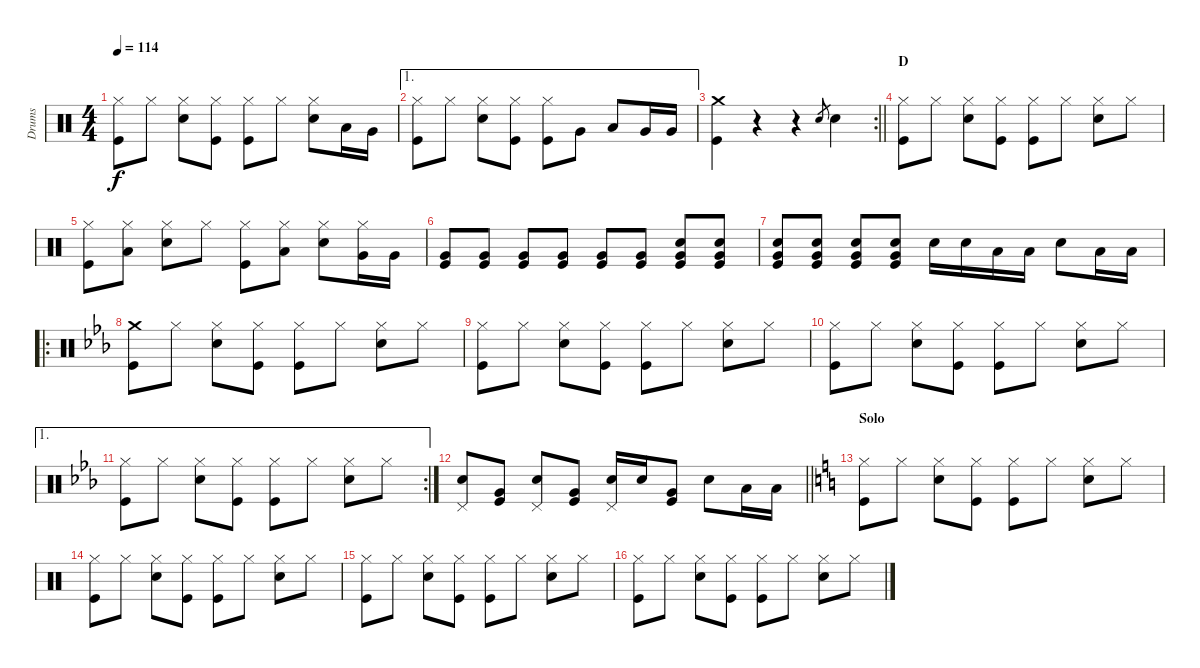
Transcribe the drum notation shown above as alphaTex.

\track ("Drums" "Drums") {instrument percussion}
\staff {score}
\articulation defaults
\ts (4 4)
\tempo 114
\clef neutral
\ks c
("Hi-Hat (closed)" "Kick (hit)").8{dy f} "Hi-Hat (closed)".8 ("Hi-Hat (closed)" "Electric Snare (hit)").8 ("Hi-Hat (closed)" "Kick (hit)").8 ("Hi-Hat (closed)" "Kick (hit)").8 "Hi-Hat (closed)".8 ("Hi-Hat (closed)" "Electric Snare (hit)").8 "Low Tom (hit)".16 "Very Low Tom (hit)".16 |
\ae 1
("Hi-Hat (closed)" "Kick (hit)").8 "Hi-Hat (closed)".8 ("Hi-Hat (closed)" "Electric Snare (hit)").8 ("Hi-Hat (closed)" "Kick (hit)").8 ("Hi-Hat (closed)" "Kick (hit)").8 "Very Low Tom (hit)".8 "Low Tom (hit)".8 "Very Low Tom (hit)".16 "Very Low Tom (hit)".16 |
\rc 2
\barLineRight lightlight
("Crash medium (hit)" "Kick (hit)").4 r.4 r.4 "Electric Snare (hit)".8{gr} "Electric Snare (hit)".4 |
\section ("" "D")
("Hi-Hat (closed)" "Kick (hit)").8 "Hi-Hat (closed)".8 ("Hi-Hat (closed)" "Electric Snare (hit)").8 ("Hi-Hat (closed)" "Kick (hit)").8 ("Hi-Hat (closed)" "Kick (hit)").8 "Hi-Hat (closed)".8 ("Hi-Hat (closed)" "Electric Snare (hit)").8 "Hi-Hat (closed)".8 |
("Hi-Hat (closed)" "Kick (hit)").8 ("Hi-Hat (closed)" "Low Tom (hit)").8 ("Hi-Hat (closed)" "Electric Snare (hit)").8 "Hi-Hat (closed)".8 ("Hi-Hat (closed)" "Kick (hit)").8 ("Hi-Hat (closed)" "Low Tom (hit)").8 ("Hi-Hat (closed)" "Electric Snare (hit)").8 ("Hi-Hat (closed)" "Very Low Tom (hit)").16 "Very Low Tom (hit)".16 |
("Very Low Tom (hit)" "Kick (hit)").8 ("Very Low Tom (hit)" "Kick (hit)").8 ("Very Low Tom (hit)" "Kick (hit)").8 ("Very Low Tom (hit)" "Kick (hit)").8 ("Very Low Tom (hit)" "Kick (hit)").8 ("Very Low Tom (hit)" "Kick (hit)").8 ("Electric Snare (hit)" "Very Low Tom (hit)" "Kick (hit)").8 ("Electric Snare (hit)" "Very Low Tom (hit)" "Kick (hit)").8 |
("Electric Snare (hit)" "Very Low Tom (hit)" "Kick (hit)").8 ("Electric Snare (hit)" "Very Low Tom (hit)" "Kick (hit)").8 ("Electric Snare (hit)" "Very Low Tom (hit)" "Kick (hit)").8 ("Electric Snare (hit)" "Very Low Tom (hit)" "Kick (hit)").8 "Electric Snare (hit)".16 "Electric Snare (hit)".16 "Low Tom (hit)".16 "Low Tom (hit)".16 "Electric Snare (hit)".8 "Low Tom (hit)".16 "Low Tom (hit)".16 |
\ro
\ks cminor
("Crash medium (hit)" "Kick (hit)").8 "Hi-Hat (closed)".8 ("Hi-Hat (closed)" "Electric Snare (hit)").8 ("Hi-Hat (closed)" "Kick (hit)").8 ("Hi-Hat (closed)" "Kick (hit)").8 "Hi-Hat (closed)".8 ("Hi-Hat (closed)" "Electric Snare (hit)").8 "Hi-Hat (closed)".8 |
("Hi-Hat (closed)" "Kick (hit)").8 "Hi-Hat (closed)".8 ("Hi-Hat (closed)" "Electric Snare (hit)").8 ("Hi-Hat (closed)" "Kick (hit)").8 ("Hi-Hat (closed)" "Kick (hit)").8 "Hi-Hat (closed)".8 ("Hi-Hat (closed)" "Electric Snare (hit)").8 "Hi-Hat (closed)".8 |
("Hi-Hat (closed)" "Kick (hit)").8 "Hi-Hat (closed)".8 ("Hi-Hat (closed)" "Electric Snare (hit)").8 ("Hi-Hat (closed)" "Kick (hit)").8 ("Hi-Hat (closed)" "Kick (hit)").8 "Hi-Hat (closed)".8 ("Hi-Hat (closed)" "Electric Snare (hit)").8 "Hi-Hat (closed)".8 |
\ae 1
\rc 2
("Hi-Hat (closed)" "Kick (hit)").8 "Hi-Hat (closed)".8 ("Hi-Hat (closed)" "Electric Snare (hit)").8 ("Hi-Hat (closed)" "Kick (hit)").8 ("Hi-Hat (closed)" "Kick (hit)").8 "Hi-Hat (closed)".8 ("Hi-Hat (closed)" "Electric Snare (hit)").8 "Hi-Hat (closed)".8 |
\barLineRight lightlight
("Pedal Hi-Hat (hit)" "Electric Snare (hit)").8 ("Very Low Tom (hit)" "Kick (hit)").8 ("Pedal Hi-Hat (hit)" "Electric Snare (hit)").8 ("Very Low Tom (hit)" "Kick (hit)").8 ("Pedal Hi-Hat (hit)" "Electric Snare (hit)").16 "Electric Snare (hit)".16 ("Very Low Tom (hit)" "Kick (hit)").8 "Electric Snare (hit)".8 "Low Tom (hit)".16 "Low Tom (hit)".16 |
\section ("" "Solo")
\ks aminor
("Hi-Hat (closed)" "Kick (hit)").8 "Hi-Hat (closed)".8 ("Hi-Hat (closed)" "Electric Snare (hit)").8 ("Hi-Hat (closed)" "Kick (hit)").8 ("Hi-Hat (closed)" "Kick (hit)").8 "Hi-Hat (closed)".8 ("Hi-Hat (closed)" "Electric Snare (hit)").8 "Hi-Hat (closed)".8 |
("Hi-Hat (closed)" "Kick (hit)").8 "Hi-Hat (closed)".8 ("Hi-Hat (closed)" "Electric Snare (hit)").8 ("Hi-Hat (closed)" "Kick (hit)").8 ("Hi-Hat (closed)" "Kick (hit)").8 "Hi-Hat (closed)".8 ("Hi-Hat (closed)" "Electric Snare (hit)").8 "Hi-Hat (closed)".8 |
("Hi-Hat (closed)" "Kick (hit)").8 "Hi-Hat (closed)".8 ("Hi-Hat (closed)" "Electric Snare (hit)").8 ("Hi-Hat (closed)" "Kick (hit)").8 ("Hi-Hat (closed)" "Kick (hit)").8 "Hi-Hat (closed)".8 ("Hi-Hat (closed)" "Electric Snare (hit)").8 "Hi-Hat (closed)".8 |
("Hi-Hat (closed)" "Kick (hit)").8 "Hi-Hat (closed)".8 ("Hi-Hat (closed)" "Electric Snare (hit)").8 ("Hi-Hat (closed)" "Kick (hit)").8 ("Hi-Hat (closed)" "Kick (hit)").8 "Hi-Hat (closed)".8 ("Hi-Hat (closed)" "Electric Snare (hit)").8 "Hi-Hat (closed)".8
